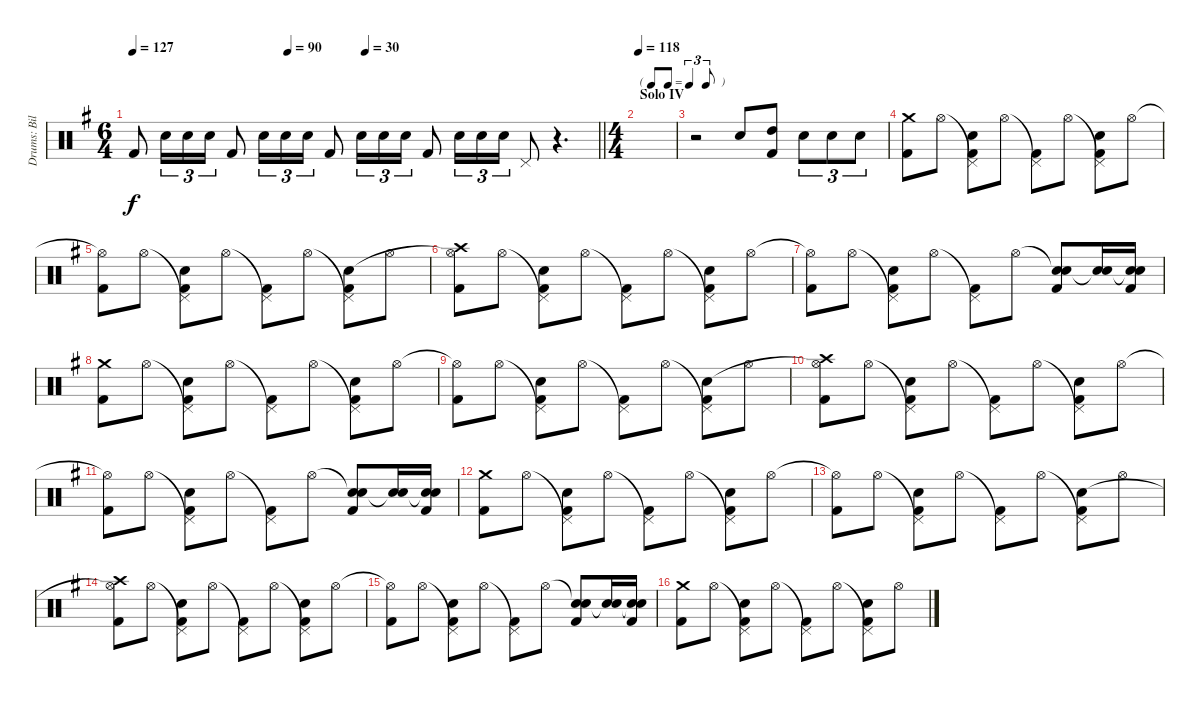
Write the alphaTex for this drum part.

\track ("Drums: Bill" "Drums: Bil") {instrument percussion}
\staff {score}
\articulation defaults
\ts (6 4)
\tempo (30 0.5)
\tempo 127
\tempo (90 0.3333333333333333)
\clef neutral
\barLineRight lightlight
\ks g "Kick (hit) 2".8{dy f} "Electric Snare (hit)".16{tu (3 2)} "Electric Snare (hit)".16{tu (3 2)} "Electric Snare (hit)".16{tu (3 2)} "Kick (hit) 2".8 "Electric Snare (hit)".16{tu (3 2)} "Electric Snare (hit)".16{tu (3 2)} "Electric Snare (hit)".16{tu (3 2)} "Kick (hit) 2".8 "Electric Snare (hit)".16{tu (3 2)} "Electric Snare (hit)".16{tu (3 2)} "Electric Snare (hit)".16{tu (3 2)} "Kick (hit) 2".8 "Electric Snare (hit)".16{tu (3 2)} "Electric Snare (hit)".16{tu (3 2)} "Electric Snare (hit)".16{tu (3 2)} "Pedal Hi-Hat (hit)".8
r.4{d} |
\ts (4 4)
\tf triplet8th
\section ("" "Solo IV")
\tempo 118
|
r.2{volume 16} "Snare (hit) 2".8 ("High Tom (hit)" "Kick (hit) 2").8 "Snare (hit) 2".8{tu (3 2)} "Electric Snare (hit)".8{tu (3 2)} "Snare (hit) 2".8{tu (3 2)} |
("Crash medium (hit)" "Kick (hit) 2").8 "Hi-Hat (open)".8 ("Pedal Hi-Hat (hit)"{t} "Snare (hit) 2" "Kick (hit) 2").8 "Hi-Hat (open)".8 ("Pedal Hi-Hat (hit)"{t} "Kick (hit) 2").8 "Hi-Hat (open)".8 ("Pedal Hi-Hat (hit)"{t} "Snare (hit) 2" "Kick (hit) 2").8 "Hi-Hat (open)".8 |
("Hi-Hat (open)"{t} "Kick (hit) 2").8 "Hi-Hat (open)".8 ("Pedal Hi-Hat (hit)"{t} "Snare (hit) 2" "Kick (hit) 2").8 "Hi-Hat (open)".8 ("Pedal Hi-Hat (hit)"{t} "Kick (hit) 2").8 "Hi-Hat (open)".8 ("Pedal Hi-Hat (hit)"{t} "Snare (hit) 2" "Kick (hit) 2").8 "Hi-Hat (open)".8 |
("Crash high (hit)" "Hi-Hat (open)"{t} "Kick (hit) 2").8 "Hi-Hat (open)".8 ("Pedal Hi-Hat (hit)"{t} "Snare (hit) 2" "Kick (hit) 2").8 "Hi-Hat (open)".8 ("Pedal Hi-Hat (hit)"{t} "Kick (hit) 2").8 "Hi-Hat (open)".8 ("Pedal Hi-Hat (hit)"{t} "Snare (hit) 2" "Kick (hit) 2").8 "Hi-Hat (open)".8 |
("Hi-Hat (open)"{t} "Kick (hit) 2").8 "Hi-Hat (open)".8 ("Pedal Hi-Hat (hit)"{t} "Snare (hit) 2" "Kick (hit) 2").8 "Hi-Hat (open)".8 ("Pedal Hi-Hat (hit)"{t} "Kick (hit) 2").8 "Hi-Hat (open)".8 ("Snare (hit)"{t} "Snare (hit) 2" "Kick (hit) 2").8 ("Snare (hit)"{t} "Snare (hit) 2").16 ("Snare (hit)"{t} "Snare (hit) 2" "Kick (hit) 2").16 |
("Crash medium (hit)" "Kick (hit) 2").8 "Hi-Hat (open)".8 ("Pedal Hi-Hat (hit)"{t} "Snare (hit) 2" "Kick (hit) 2").8 "Hi-Hat (open)".8 ("Pedal Hi-Hat (hit)"{t} "Kick (hit) 2").8 "Hi-Hat (open)".8 ("Pedal Hi-Hat (hit)"{t} "Snare (hit) 2" "Kick (hit) 2").8 "Hi-Hat (open)".8 |
("Hi-Hat (open)"{t} "Kick (hit) 2").8 "Hi-Hat (open)".8 ("Pedal Hi-Hat (hit)"{t} "Snare (hit) 2" "Kick (hit) 2").8 "Hi-Hat (open)".8 ("Pedal Hi-Hat (hit)"{t} "Kick (hit) 2").8 "Hi-Hat (open)".8 ("Pedal Hi-Hat (hit)"{t} "Snare (hit) 2" "Kick (hit) 2").8 "Hi-Hat (open)".8 |
("Crash high (hit)" "Hi-Hat (open)"{t} "Kick (hit) 2").8 "Hi-Hat (open)".8 ("Pedal Hi-Hat (hit)"{t} "Snare (hit) 2" "Kick (hit) 2").8 "Hi-Hat (open)".8 ("Pedal Hi-Hat (hit)"{t} "Kick (hit) 2").8 "Hi-Hat (open)".8 ("Pedal Hi-Hat (hit)"{t} "Snare (hit) 2" "Kick (hit) 2").8 "Hi-Hat (open)".8 |
("Hi-Hat (open)"{t} "Kick (hit) 2").8 "Hi-Hat (open)".8 ("Pedal Hi-Hat (hit)"{t} "Snare (hit) 2" "Kick (hit) 2").8 "Hi-Hat (open)".8 ("Pedal Hi-Hat (hit)"{t} "Kick (hit) 2").8 "Hi-Hat (open)".8 ("Snare (hit)"{t} "Snare (hit) 2" "Kick (hit) 2").8 ("Snare (hit)"{t} "Snare (hit) 2").16 ("Snare (hit)"{t} "Snare (hit) 2" "Kick (hit) 2").16 |
("Crash medium (hit)" "Kick (hit) 2").8 "Hi-Hat (open)".8 ("Pedal Hi-Hat (hit)"{t} "Snare (hit) 2" "Kick (hit) 2").8 "Hi-Hat (open)".8 ("Pedal Hi-Hat (hit)"{t} "Kick (hit) 2").8 "Hi-Hat (open)".8 ("Pedal Hi-Hat (hit)"{t} "Snare (hit) 2" "Kick (hit) 2").8 "Hi-Hat (open)".8 |
("Hi-Hat (open)"{t} "Kick (hit) 2").8 "Hi-Hat (open)".8 ("Pedal Hi-Hat (hit)"{t} "Snare (hit) 2" "Kick (hit) 2").8 "Hi-Hat (open)".8 ("Pedal Hi-Hat (hit)"{t} "Kick (hit) 2").8 "Hi-Hat (open)".8 ("Pedal Hi-Hat (hit)"{t} "Snare (hit) 2" "Kick (hit) 2").8 "Hi-Hat (open)".8 |
("Crash high (hit)" "Hi-Hat (open)"{t} "Kick (hit) 2").8 "Hi-Hat (open)".8 ("Pedal Hi-Hat (hit)"{t} "Snare (hit) 2" "Kick (hit) 2").8 "Hi-Hat (open)".8 ("Pedal Hi-Hat (hit)"{t} "Kick (hit) 2").8 "Hi-Hat (open)".8 ("Pedal Hi-Hat (hit)"{t} "Snare (hit) 2" "Kick (hit) 2").8 "Hi-Hat (open)".8 |
("Hi-Hat (open)"{t} "Kick (hit) 2").8 "Hi-Hat (open)".8 ("Pedal Hi-Hat (hit)"{t} "Snare (hit) 2" "Kick (hit) 2").8 "Hi-Hat (open)".8 ("Pedal Hi-Hat (hit)"{t} "Kick (hit) 2").8 "Hi-Hat (open)".8 ("Snare (hit)"{t} "Snare (hit) 2" "Kick (hit) 2").8 ("Snare (hit)"{t} "Snare (hit) 2").16 ("Snare (hit)"{t} "Snare (hit) 2" "Kick (hit) 2").16 |
("Crash medium (hit)" "Kick (hit) 2").8 "Hi-Hat (open)".8 ("Pedal Hi-Hat (hit)"{t} "Snare (hit) 2" "Kick (hit) 2").8 "Hi-Hat (open)".8 ("Pedal Hi-Hat (hit)"{t} "Kick (hit) 2").8 "Hi-Hat (open)".8 ("Pedal Hi-Hat (hit)"{t} "Snare (hit) 2" "Kick (hit) 2").8 "Hi-Hat (open)".8
